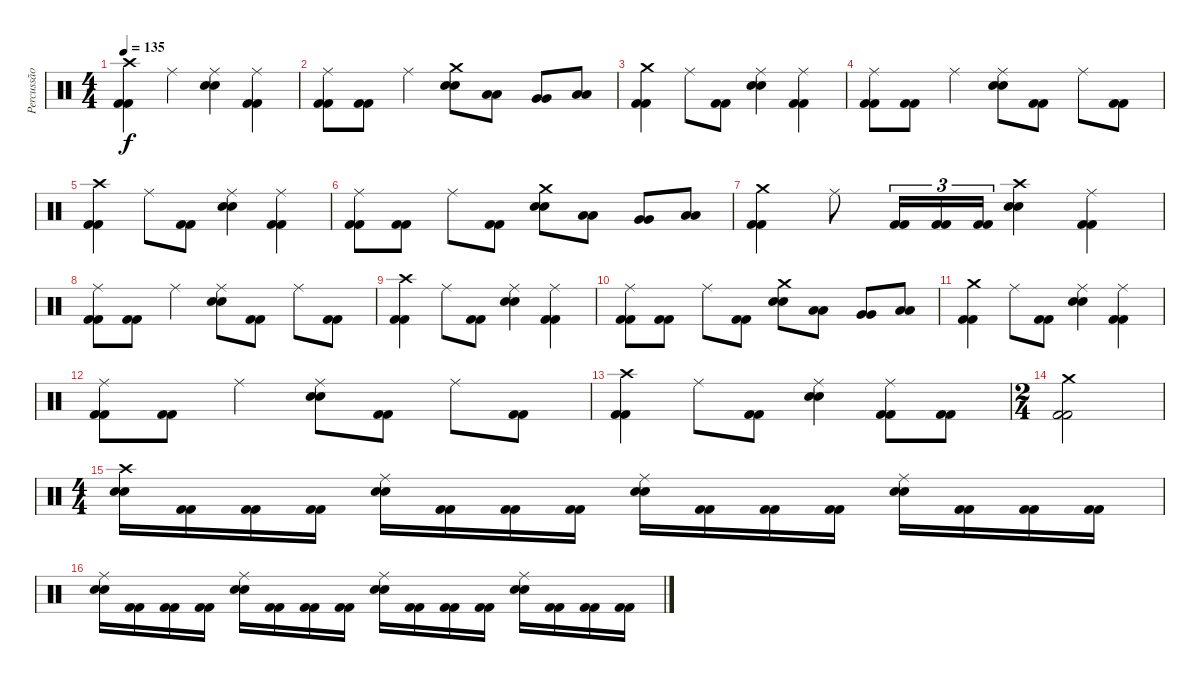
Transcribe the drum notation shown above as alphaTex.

\track ("Percussão" "Percussão") {instrument percussion}
\staff {score}
\articulation defaults
\ts (4 4)
\tempo 135
\clef neutral
\ks c
("Crash high (hit)" "Kick (hit) 2" "Kick (hit) 2").4{dy f} "Ride (middle)".4 ("Ride (middle)" "Electric Snare (hit)" "Electric Snare (hit)").4 ("Ride (middle)" "Kick (hit) 2" "Kick (hit) 2").4 |
("Ride (middle)" "Kick (hit) 2" "Kick (hit) 2").8 ("Kick (hit) 2" "Kick (hit) 2").8 "Ride (middle)".4 ("Crash medium (hit)" "Electric Snare (hit)" "Electric Snare (hit)").8 ("Low Floor Tom (hit)" "Low Floor Tom (hit)").8 ("Very Low Tom (hit)" "Very Low Tom (hit)").8 ("Low Floor Tom (hit)" "Low Floor Tom (hit)").8 |
("Crash medium (hit)" "Kick (hit) 2" "Kick (hit) 2").4 "Ride (middle)".8 ("Kick (hit) 2" "Kick (hit) 2").8 ("Ride (middle)" "Electric Snare (hit)" "Electric Snare (hit)").4 ("Ride (middle)" "Kick (hit) 2" "Kick (hit) 2").4 |
("Ride (middle)" "Kick (hit) 2" "Kick (hit) 2").8 ("Kick (hit) 2" "Kick (hit) 2").8 "Ride (middle)".4 ("Ride (middle)" "Electric Snare (hit)" "Electric Snare (hit)").8 ("Kick (hit) 2" "Kick (hit) 2").8 "Ride (middle)".8 ("Kick (hit) 2" "Kick (hit) 2").8 |
("Crash high (hit)" "Kick (hit) 2" "Kick (hit) 2").4 "Ride (middle)".8 ("Kick (hit) 2" "Kick (hit) 2").8 ("Ride (middle)" "Electric Snare (hit)" "Electric Snare (hit)").4 ("Ride (middle)" "Kick (hit) 2" "Kick (hit) 2").4 |
("Ride (middle)" "Kick (hit) 2" "Kick (hit) 2").8 ("Kick (hit) 2" "Kick (hit) 2").8 "Ride (middle)".8 ("Kick (hit) 2" "Kick (hit) 2").8 ("Crash medium (hit)" "Electric Snare (hit)" "Electric Snare (hit)").8 ("Low Floor Tom (hit)" "Low Floor Tom (hit)").8 ("Very Low Tom (hit)" "Very Low Tom (hit)").8 ("Low Floor Tom (hit)" "Low Floor Tom (hit)").8 |
("Crash medium (hit)" "Kick (hit) 2" "Kick (hit) 2").4 "Ride (middle)".8 ("Kick (hit) 2" "Kick (hit) 2").16{tu (3 2)} ("Kick (hit) 2" "Kick (hit) 2").16{tu (3 2)} ("Kick (hit) 2" "Kick (hit) 2").16{tu (3 2)} ("Crash high (hit)" "Electric Snare (hit)" "Electric Snare (hit)").4 ("Ride (middle)" "Kick (hit) 2" "Kick (hit) 2").4 |
("Ride (middle)" "Kick (hit) 2" "Kick (hit) 2").8 ("Kick (hit) 2" "Kick (hit) 2").8 "Ride (middle)".4 ("Ride (middle)" "Electric Snare (hit)" "Electric Snare (hit)").8 ("Kick (hit) 2" "Kick (hit) 2").8 "Ride (middle)".8 ("Kick (hit) 2" "Kick (hit) 2").8 |
("Crash high (hit)" "Kick (hit) 2" "Kick (hit) 2").4 "Ride (middle)".8 ("Kick (hit) 2" "Kick (hit) 2").8 ("Ride (middle)" "Electric Snare (hit)" "Electric Snare (hit)").4 ("Ride (middle)" "Kick (hit) 2" "Kick (hit) 2").4 |
("Ride (middle)" "Kick (hit) 2" "Kick (hit) 2").8 ("Kick (hit) 2" "Kick (hit) 2").8 "Ride (middle)".8 ("Kick (hit) 2" "Kick (hit) 2").8 ("Crash medium (hit)" "Electric Snare (hit)" "Electric Snare (hit)").8 ("Low Floor Tom (hit)" "Low Floor Tom (hit)").8 ("Very Low Tom (hit)" "Very Low Tom (hit)").8 ("Low Floor Tom (hit)" "Low Floor Tom (hit)").8 |
("Crash medium (hit)" "Kick (hit) 2" "Kick (hit) 2").4 "Ride (middle)".8 ("Kick (hit) 2" "Kick (hit) 2").8 ("Ride (middle)" "Electric Snare (hit)" "Electric Snare (hit)").4 ("Ride (middle)" "Kick (hit) 2" "Kick (hit) 2").4 |
("Ride (middle)" "Kick (hit) 2" "Kick (hit) 2").8 ("Kick (hit) 2" "Kick (hit) 2").8 "Ride (middle)".4 ("Ride (middle)" "Electric Snare (hit)" "Electric Snare (hit)").8 ("Kick (hit) 2" "Kick (hit) 2").8 "Ride (middle)".8 ("Kick (hit) 2" "Kick (hit) 2").8 |
("Crash high (hit)" "Kick (hit) 2" "Kick (hit) 2").4 "Ride (middle)".8 ("Kick (hit) 2" "Kick (hit) 2").8 ("Ride (middle)" "Electric Snare (hit)" "Electric Snare (hit)").4 ("Ride (middle)" "Kick (hit) 2" "Kick (hit) 2").8 ("Kick (hit) 2" "Kick (hit) 2").8 |
\ts (2 4)
("Crash medium (hit)" "Kick (hit) 2" "Kick (hit) 2").2 |
\ts (4 4)
("Crash high (hit)" "Electric Snare (hit)" "Electric Snare (hit)").16 ("Kick (hit) 2" "Kick (hit) 2").16 ("Kick (hit) 2" "Kick (hit) 2").16 ("Kick (hit) 2" "Kick (hit) 2").16 ("Ride (middle)" "Electric Snare (hit)" "Electric Snare (hit)").16 ("Kick (hit) 2" "Kick (hit) 2").16 ("Kick (hit) 2" "Kick (hit) 2").16 ("Kick (hit) 2" "Kick (hit) 2").16 ("Ride (middle)" "Electric Snare (hit)" "Electric Snare (hit)").16 ("Kick (hit) 2" "Kick (hit) 2").16 ("Kick (hit) 2" "Kick (hit) 2").16 ("Kick (hit) 2" "Kick (hit) 2").16 ("Ride (middle)" "Electric Snare (hit)" "Electric Snare (hit)").16 ("Kick (hit) 2" "Kick (hit) 2").16 ("Kick (hit) 2" "Kick (hit) 2").16 ("Kick (hit) 2" "Kick (hit) 2").16 |
("Ride (middle)" "Electric Snare (hit)" "Electric Snare (hit)").16 ("Kick (hit) 2" "Kick (hit) 2").16 ("Kick (hit) 2" "Kick (hit) 2").16 ("Kick (hit) 2" "Kick (hit) 2").16 ("Ride (middle)" "Electric Snare (hit)" "Electric Snare (hit)").16 ("Kick (hit) 2" "Kick (hit) 2").16 ("Kick (hit) 2" "Kick (hit) 2").16 ("Kick (hit) 2" "Kick (hit) 2").16 ("Ride (middle)" "Electric Snare (hit)" "Electric Snare (hit)").16 ("Kick (hit) 2" "Kick (hit) 2").16 ("Kick (hit) 2" "Kick (hit) 2").16 ("Kick (hit) 2" "Kick (hit) 2").16 ("Ride (middle)" "Electric Snare (hit)" "Electric Snare (hit)").16 ("Kick (hit) 2" "Kick (hit) 2").16 ("Kick (hit) 2" "Kick (hit) 2").16 ("Kick (hit) 2" "Kick (hit) 2").16
